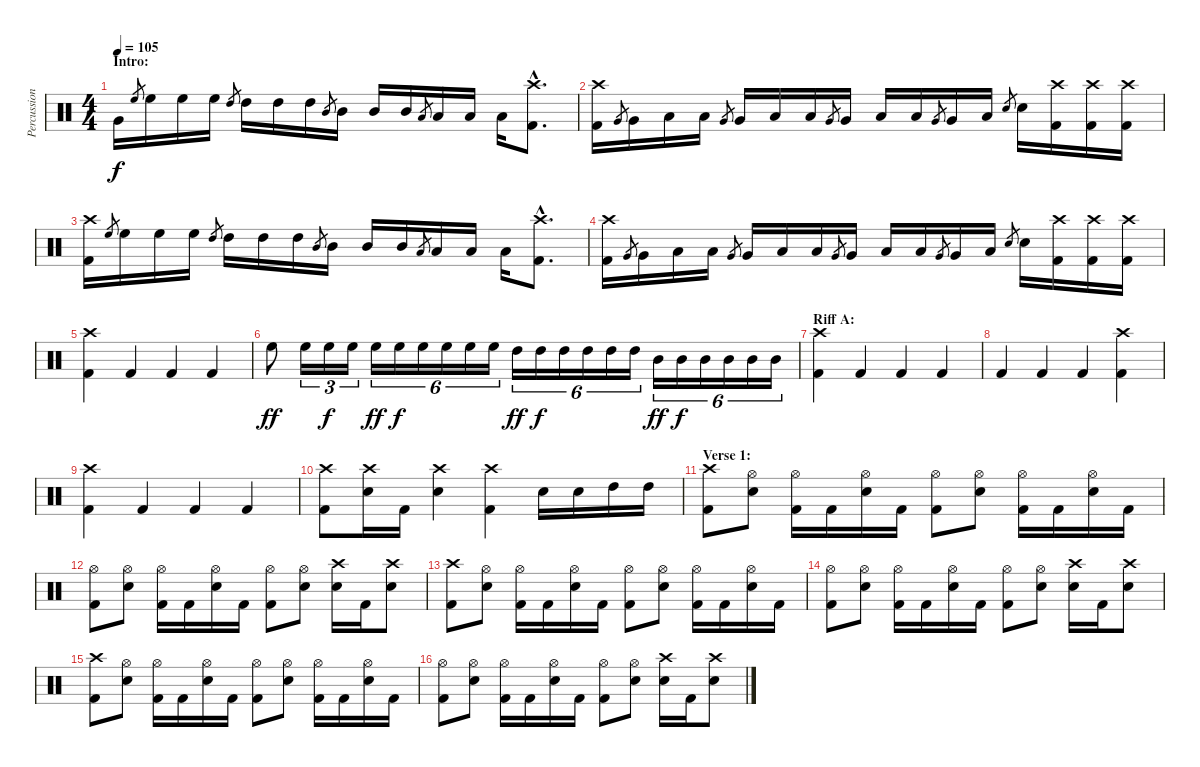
\track ("Percussion" "Percussion") {instrument percussion}
\staff {score}
\articulation defaults
\ts (4 4)
\section ("" "Intro:")
\tempo 105
\clef neutral
\ks c "Very Low Tom (hit)".16{dy f} "High Floor Tom (hit)".8{gr} "High Floor Tom (hit)".16 "High Floor Tom (hit)".16 "High Floor Tom (hit)".16 "High Tom (hit)".8{gr} "High Tom (hit)".16 "High Tom (hit)".16 "High Tom (hit)".16 "Mid Tom (hit)".8{gr} "Mid Tom (hit)".16 "Mid Tom (hit)".16 "Mid Tom (hit)".16 "Low Tom (hit)".8{gr} "Low Tom (hit)".16 "Low Tom (hit)".16 "Low Tom (hit)".16
("Crash high (hit)"{hac} "Kick (hit) 2"{hac}).8{d} |
("Crash high (hit)" "Kick (hit) 2").16 "Very Low Tom (hit)".8{gr} "Very Low Tom (hit)".16 "Low Floor Tom (hit)".16 "Low Floor Tom (hit)".16 "Very Low Tom (hit)".8{gr} "Very Low Tom (hit)".16 "Low Floor Tom (hit)".16 "Low Floor Tom (hit)".16 "Very Low Tom (hit)".8{gr} "Very Low Tom (hit)".16 "Low Floor Tom (hit)".16 "Low Floor Tom (hit)".16 "Very Low Tom (hit)".8{gr} "Very Low Tom (hit)".16 "Low Floor Tom (hit)".16 "Snare (hit) 2".8{gr} "Snare (hit) 2".16 ("Crash high (hit)" "Kick (hit) 2").16 ("Crash high (hit)" "Kick (hit) 2").16 ("Crash high (hit)" "Kick (hit) 2").16 |
("Crash high (hit)" "Kick (hit) 2").16 "High Floor Tom (hit)".8{gr} "High Floor Tom (hit)".16 "High Floor Tom (hit)".16 "High Floor Tom (hit)".16 "High Tom (hit)".8{gr} "High Tom (hit)".16 "High Tom (hit)".16 "High Tom (hit)".16 "Mid Tom (hit)".8{gr} "Mid Tom (hit)".16 "Mid Tom (hit)".16 "Mid Tom (hit)".16 "Low Tom (hit)".8{gr} "Low Tom (hit)".16 "Low Tom (hit)".16 "Low Tom (hit)".16 ("Crash high (hit)"{hac} "Kick (hit) 2"{hac}).8{d} |
("Crash high (hit)" "Kick (hit) 2").16 "Very Low Tom (hit)".8{gr} "Very Low Tom (hit)".16 "Low Floor Tom (hit)".16 "Low Floor Tom (hit)".16 "Very Low Tom (hit)".8{gr} "Very Low Tom (hit)".16 "Low Floor Tom (hit)".16 "Low Floor Tom (hit)".16 "Very Low Tom (hit)".8{gr} "Very Low Tom (hit)".16 "Low Floor Tom (hit)".16 "Low Floor Tom (hit)".16 "Very Low Tom (hit)".8{gr} "Very Low Tom (hit)".16 "Low Floor Tom (hit)".16 "Snare (hit) 2".8{gr} "Snare (hit) 2".16 ("Crash high (hit)" "Kick (hit) 2").16 ("Crash high (hit)" "Kick (hit) 2").16 ("Crash high (hit)" "Kick (hit) 2").16 |
("Crash high (hit)" "Kick (hit) 2").4 "Kick (hit) 2".4 "Kick (hit) 2".4 "Kick (hit) 2".4 |
"High Floor Tom (hit)".8{dy ff} "High Floor Tom (hit)".16{tu (3 2)} "High Floor Tom (hit)".16{tu (3 2) dy f} "High Floor Tom (hit)".16{tu (3 2)} "High Floor Tom (hit)".16{tu (6 4) dy ff} "High Floor Tom (hit)".16{tu (6 4) dy f} "High Floor Tom (hit)".16{tu (6 4)} "High Floor Tom (hit)".16{tu (6 4)} "High Floor Tom (hit)".16{tu (6 4)} "High Floor Tom (hit)".16{tu (6 4)} "High Tom (hit)".16{tu (6 4) dy ff} "High Tom (hit)".16{tu (6 4) dy f} "High Tom (hit)".16{tu (6 4)} "High Tom (hit)".16{tu (6 4)} "High Tom (hit)".16{tu (6 4)} "High Tom (hit)".16{tu (6 4)} "Mid Tom (hit)".16{tu (6 4) dy ff} "Mid Tom (hit)".16{tu (6 4) dy f} "Mid Tom (hit)".16{tu (6 4)} "Mid Tom (hit)".16{tu (6 4)} "Mid Tom (hit)".16{tu (6 4)} "Mid Tom (hit)".16{tu (6 4)} |
\section ("" "Riff A:")
("Crash high (hit)" "Kick (hit) 2").4 "Kick (hit) 2".4 "Kick (hit) 2".4 "Kick (hit) 2".4 |
"Kick (hit) 2".4 "Kick (hit) 2".4 "Kick (hit) 2".4 ("Crash high (hit)" "Kick (hit) 2").4 |
("Crash high (hit)" "Kick (hit) 2").4 "Kick (hit) 2".4 "Kick (hit) 2".4 "Kick (hit) 2".4 |
("Crash high (hit)" "Kick (hit) 2").8 ("Crash high (hit)" "Snare (hit) 2").16 "Kick (hit) 2".16 ("Crash high (hit)" "Snare (hit) 2").4 ("Crash high (hit)" "Kick (hit) 2").4 "Snare (hit) 2".16 "Snare (hit) 2".16 "High Tom (hit)".16 "High Tom (hit)".16 |
\section ("" "Verse 1:")
("Crash high (hit)" "Kick (hit) 2").8 ("Hi-Hat (open)" "Snare (hit) 2").8 ("Hi-Hat (open)" "Kick (hit) 2").16 "Kick (hit) 2".16 ("Hi-Hat (open)" "Snare (hit) 2").16 "Kick (hit) 2".16 ("Hi-Hat (open)" "Kick (hit) 2").8 ("Hi-Hat (open)" "Snare (hit) 2").8 ("Hi-Hat (open)" "Kick (hit) 2").16 "Kick (hit) 2".16 ("Hi-Hat (open)" "Snare (hit) 2").16 "Kick (hit) 2".16 |
("Hi-Hat (open)" "Kick (hit) 2").8 ("Hi-Hat (open)" "Snare (hit) 2").8 ("Hi-Hat (open)" "Kick (hit) 2").16 "Kick (hit) 2".16 ("Hi-Hat (open)" "Snare (hit) 2").16 "Kick (hit) 2".16 ("Hi-Hat (open)" "Kick (hit) 2").8 ("Hi-Hat (open)" "Snare (hit) 2").8 ("Crash high (hit)" "Snare (hit) 2").16 "Kick (hit) 2".16 ("Crash high (hit)" "Snare (hit) 2").8 |
("Crash high (hit)" "Kick (hit) 2").8 ("Hi-Hat (open)" "Snare (hit) 2").8 ("Hi-Hat (open)" "Kick (hit) 2").16 "Kick (hit) 2".16 ("Hi-Hat (open)" "Snare (hit) 2").16 "Kick (hit) 2".16 ("Hi-Hat (open)" "Kick (hit) 2").8 ("Hi-Hat (open)" "Snare (hit) 2").8 ("Hi-Hat (open)" "Kick (hit) 2").16 "Kick (hit) 2".16 ("Hi-Hat (open)" "Snare (hit) 2").16 "Kick (hit) 2".16 |
("Hi-Hat (open)" "Kick (hit) 2").8 ("Hi-Hat (open)" "Snare (hit) 2").8 ("Hi-Hat (open)" "Kick (hit) 2").16 "Kick (hit) 2".16 ("Hi-Hat (open)" "Snare (hit) 2").16 "Kick (hit) 2".16 ("Hi-Hat (open)" "Kick (hit) 2").8 ("Hi-Hat (open)" "Snare (hit) 2").8 ("Crash high (hit)" "Snare (hit) 2").16 "Kick (hit) 2".16 ("Crash high (hit)" "Snare (hit) 2").8 |
("Crash high (hit)" "Kick (hit) 2").8 ("Hi-Hat (open)" "Snare (hit) 2").8 ("Hi-Hat (open)" "Kick (hit) 2").16 "Kick (hit) 2".16 ("Hi-Hat (open)" "Snare (hit) 2").16 "Kick (hit) 2".16 ("Hi-Hat (open)" "Kick (hit) 2").8 ("Hi-Hat (open)" "Snare (hit) 2").8 ("Hi-Hat (open)" "Kick (hit) 2").16 "Kick (hit) 2".16 ("Hi-Hat (open)" "Snare (hit) 2").16 "Kick (hit) 2".16 |
("Hi-Hat (open)" "Kick (hit) 2").8 ("Hi-Hat (open)" "Snare (hit) 2").8 ("Hi-Hat (open)" "Kick (hit) 2").16 "Kick (hit) 2".16 ("Hi-Hat (open)" "Snare (hit) 2").16 "Kick (hit) 2".16 ("Hi-Hat (open)" "Kick (hit) 2").8 ("Hi-Hat (open)" "Snare (hit) 2").8 ("Crash high (hit)" "Snare (hit) 2").16 "Kick (hit) 2".16 ("Crash high (hit)" "Snare (hit) 2").8
